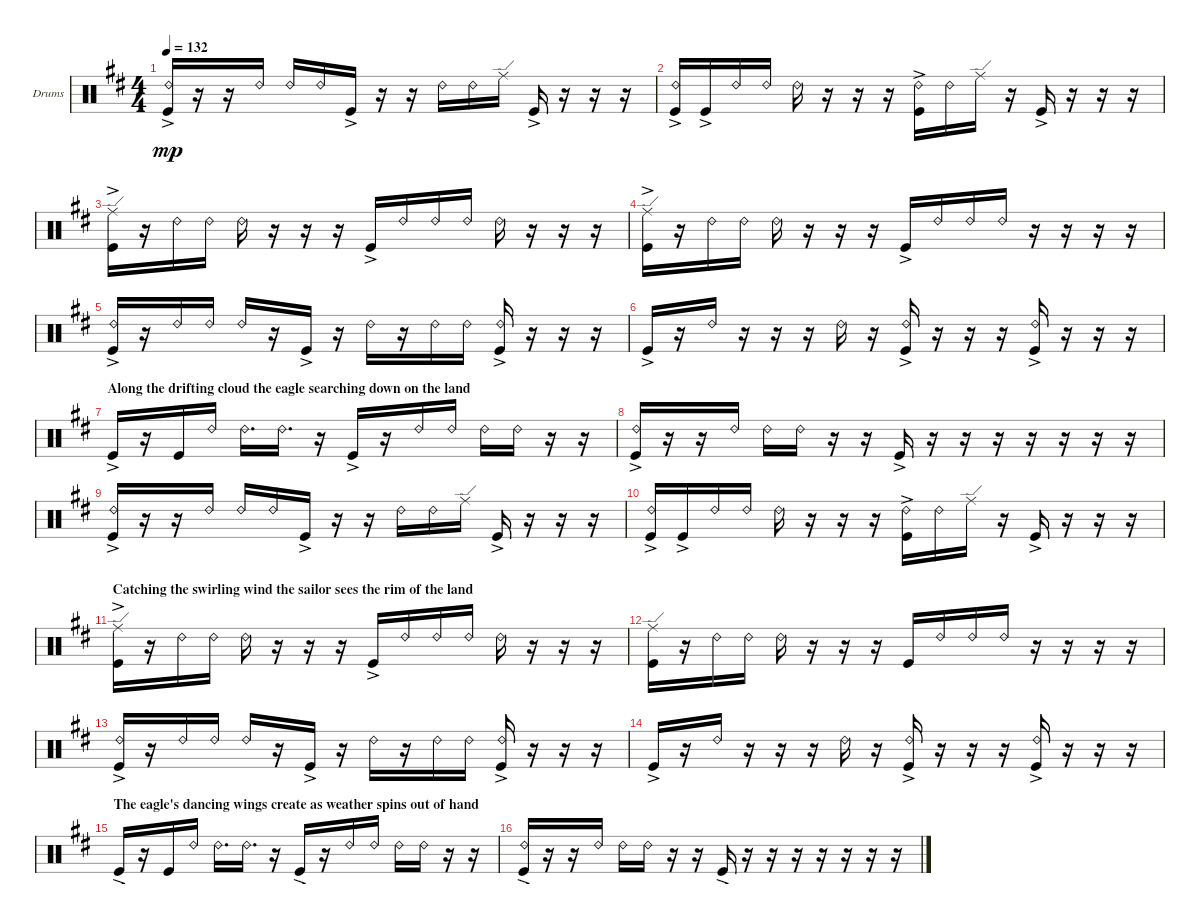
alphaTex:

\bracketExtendMode groupsimilarinstruments
\firstSystemTrackNameOrientation horizontal
\otherSystemsTrackNameOrientation horizontal
\track ("Drumkit" "Drums") {instrument percussion}
\staff {score}
\articulation defaults
\ts (4 4)
\tempo 132
\clef neutral
\ks bminor
("Ride (bell) 2" "Kick (hit)"{ac}).16{dy mp} r.16 r.16 "Ride (bell) 2".16 "Ride (bell) 2".16 "Ride (bell) 2".16 "Kick (hit)"{ac}.16 r.16 r.16 "Ride (bell) 2".16 "Ride (bell) 2".16 "Ride (edge)".16 "Kick (hit)"{ac}.16 r.16 r.16 r.16 |
("Ride (bell) 2" "Kick (hit)"{ac}).16 "Kick (hit)"{ac}.16 "Ride (bell) 2".16 "Ride (bell) 2".16 "Ride (bell) 2".16 r.16 r.16 r.16 ("Ride (bell) 2" "Kick (hit)"{ac}).16 "Ride (bell) 2".16 "Ride (edge)".16 r.16 "Kick (hit)"{ac}.16 r.16 r.16 r.16 |
("Ride (edge)" "Kick (hit)"{ac}).16 r.16 "Ride (bell) 2".16 "Ride (bell) 2".16 "Ride (bell) 2".16 r.16 r.16 r.16 "Kick (hit)"{ac}.16 "Ride (bell) 2".16 "Ride (bell) 2".16 "Ride (bell) 2".16 "Ride (bell) 2".16 r.16 r.16 r.16 |
("Ride (edge)" "Kick (hit)"{ac}).16 r.16 "Ride (bell) 2".16 "Ride (bell) 2".16 "Ride (bell) 2".16 r.16 r.16 r.16 "Kick (hit)"{ac}.16 "Ride (bell) 2".16 "Ride (bell) 2".16 "Ride (bell) 2".16 r.16 r.16 r.16 r.16 |
("Ride (bell) 2" "Kick (hit)"{ac}).16 r.16 "Ride (bell) 2".16 "Ride (bell) 2".16 "Ride (bell) 2".16 r.16 "Kick (hit)"{ac}.16 r.16 "Ride (bell) 2".16 r.16 "Ride (bell) 2".16 "Ride (bell) 2".16 ("Ride (bell) 2" "Kick (hit)"{ac}).16 r.16 r.16 r.16 |
"Kick (hit)"{ac}.16 r.16 "Ride (bell) 2".16 r.16 r.16 r.16 "Ride (bell) 2".16 r.16 ("Ride (bell) 2" "Kick (hit)"{ac}).16 r.16 r.16 r.16 ("Ride (bell) 2" "Kick (hit)"{ac}).16 r.16 r.16 r.16 |
\section ("" "Along the drifting cloud the eagle searching down on the land")
"Kick (hit)"{ac}.16 r.16 "Kick (hit)".16 "Ride (bell) 2".16 "Ride (bell) 2".16{d} "Ride (bell) 2".16{d} r.16 "Kick (hit)"{ac}.16 r.16 "Ride (bell) 2".16 "Ride (bell) 2".16 "Ride (bell) 2".16 "Ride (bell) 2".16 r.16 r.16 |
("Ride (bell) 2" "Kick (hit)"{ac}).16 r.16 r.16 "Ride (bell) 2".16 "Ride (bell) 2".16 "Ride (bell) 2".16 r.16 r.16 "Kick (hit)"{ac}.16 r.16 r.16 r.16 r.16 r.16 r.16 r.16 |
("Ride (bell) 2" "Kick (hit)"{ac}).16 r.16 r.16 "Ride (bell) 2".16 "Ride (bell) 2".16 "Ride (bell) 2".16 "Kick (hit)"{ac}.16 r.16 r.16 "Ride (bell) 2".16 "Ride (bell) 2".16 "Ride (edge)".16 "Kick (hit)"{ac}.16 r.16 r.16 r.16 |
("Ride (bell) 2" "Kick (hit)"{ac}).16 "Kick (hit)"{ac}.16 "Ride (bell) 2".16 "Ride (bell) 2".16 "Ride (bell) 2".16 r.16 r.16 r.16 ("Ride (bell) 2" "Kick (hit)"{ac}).16 "Ride (bell) 2".16 "Ride (edge)".16 r.16 "Kick (hit)"{ac}.16 r.16 r.16 r.16 |
\section ("" "Catching the swirling wind the sailor sees the rim of the land")
("Ride (edge)" "Kick (hit)"{ac}).16 r.16 "Ride (bell) 2".16 "Ride (bell) 2".16 "Ride (bell) 2".16 r.16 r.16 r.16 "Kick (hit)"{ac}.16 "Ride (bell) 2".16 "Ride (bell) 2".16 "Ride (bell) 2".16 "Ride (bell) 2".16 r.16 r.16 r.16 |
("Ride (edge)" "Kick (hit)").16 r.16 "Ride (bell) 2".16 "Ride (bell) 2".16 "Ride (bell) 2".16 r.16 r.16 r.16 "Kick (hit)".16 "Ride (bell) 2".16 "Ride (bell) 2".16 "Ride (bell) 2".16 r.16 r.16 r.16 r.16 |
("Ride (bell) 2" "Kick (hit)"{ac}).16 r.16 "Ride (bell) 2".16 "Ride (bell) 2".16 "Ride (bell) 2".16 r.16 "Kick (hit)"{ac}.16 r.16 "Ride (bell) 2".16 r.16 "Ride (bell) 2".16 "Ride (bell) 2".16 ("Ride (bell) 2" "Kick (hit)"{ac}).16 r.16 r.16 r.16 |
"Kick (hit)"{ac}.16 r.16 "Ride (bell) 2".16 r.16 r.16 r.16 "Ride (bell) 2".16 r.16 ("Ride (bell) 2" "Kick (hit)"{ac}).16 r.16 r.16 r.16 ("Ride (bell) 2" "Kick (hit)"{ac}).16 r.16 r.16 r.16 |
\section ("" "The eagle's dancing wings create as weather spins out of hand")
"Kick (hit)"{ac}.16 r.16 "Kick (hit)".16 "Ride (bell) 2".16 "Ride (bell) 2".16{d} "Ride (bell) 2".16{d} r.16 "Kick (hit)"{ac}.16 r.16 "Ride (bell) 2".16 "Ride (bell) 2".16 "Ride (bell) 2".16 "Ride (bell) 2".16 r.16 r.16 |
("Ride (bell) 2" "Kick (hit)"{ac}).16 r.16 r.16 "Ride (bell) 2".16 "Ride (bell) 2".16 "Ride (bell) 2".16 r.16 r.16 "Kick (hit)"{ac}.16 r.16 r.16 r.16 r.16 r.16 r.16 r.16
